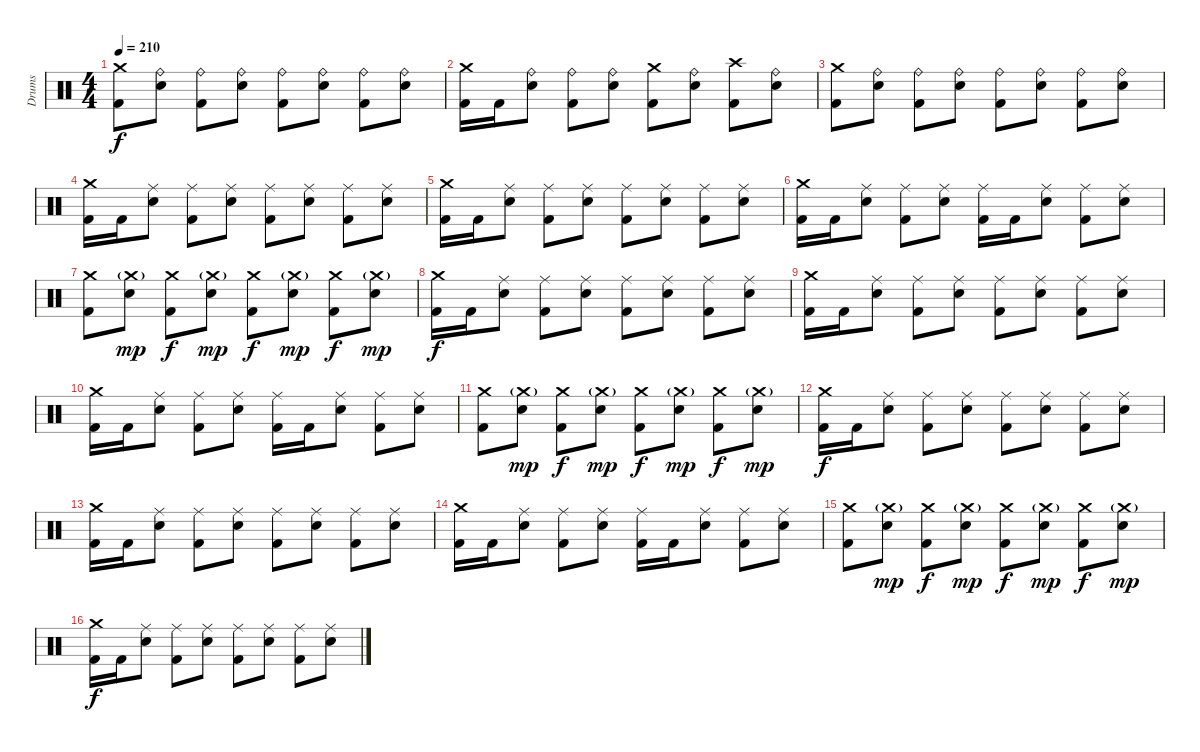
\track ("Drums" "Drums") {instrument percussion}
\staff {score}
\articulation defaults
\ts (4 4)
\tempo 210
\clef neutral
\ks c
("Kick (hit) 2" "Crash medium (hit)").8{dy f} ("Snare (hit) 2" "Ride (bell)").8 ("Kick (hit) 2" "Ride (bell)").8 ("Snare (hit) 2" "Ride (bell)").8 ("Kick (hit) 2" "Ride (bell)").8 ("Snare (hit) 2" "Ride (bell)").8 ("Kick (hit) 2" "Ride (bell)").8 ("Snare (hit) 2" "Ride (bell)").8 |
("Kick (hit) 2" "Crash medium (hit)").16 "Kick (hit) 2".16 ("Snare (hit) 2" "Ride (bell)").8 ("Kick (hit) 2" "Ride (bell)").8 ("Snare (hit) 2" "Ride (bell)").8 ("Kick (hit) 2" "Crash medium (hit)").8 ("Snare (hit) 2" "Ride (bell)").8 ("Kick (hit) 2" "Crash high (hit)").8 ("Snare (hit) 2" "Ride (bell)").8 |
("Kick (hit) 2" "Crash medium (hit)").8 ("Snare (hit) 2" "Ride (bell)").8 ("Kick (hit) 2" "Ride (bell)").8 ("Snare (hit) 2" "Ride (bell)").8 ("Kick (hit) 2" "Ride (bell)").8 ("Snare (hit) 2" "Ride (bell)").8 ("Kick (hit) 2" "Ride (bell)").8 ("Snare (hit) 2" "Ride (bell)").8 |
("Kick (hit) 2" "Crash medium (hit)").16 "Kick (hit) 2".16 ("Snare (hit) 2" "Ride (middle)").8 ("Kick (hit) 2" "Ride (middle)").8 ("Snare (hit) 2" "Ride (middle)").8 ("Kick (hit) 2" "Ride (middle)").8 ("Snare (hit) 2" "Ride (middle)").8 ("Kick (hit) 2" "Ride (middle)").8 ("Snare (hit) 2" "Ride (middle)").8 |
("Kick (hit) 2" "Crash medium (hit)").16 "Kick (hit) 2".16 ("Snare (hit) 2" "Ride (middle)").8 ("Kick (hit) 2" "Ride (middle)").8 ("Snare (hit) 2" "Ride (middle)").8 ("Kick (hit) 2" "Ride (middle)").8 ("Snare (hit) 2" "Ride (middle)").8 ("Kick (hit) 2" "Ride (middle)").8 ("Snare (hit) 2" "Ride (middle)").8 |
("Kick (hit) 2" "Crash medium (hit)").16 "Kick (hit) 2".16 ("Snare (hit) 2" "Ride (middle)").8 ("Kick (hit) 2" "Ride (middle)").8 ("Snare (hit) 2" "Ride (middle)").8 ("Kick (hit) 2" "Ride (middle)").16 "Kick (hit) 2".16 ("Snare (hit) 2" "Ride (middle)").8 ("Kick (hit) 2" "Ride (middle)").8 ("Snare (hit) 2" "Ride (middle)").8 |
("Kick (hit) 2" "Crash medium (hit)").8 ("Snare (hit) 2" "Crash medium (hit)"{g}).8{dy mp} ("Kick (hit) 2" "Crash medium (hit)").8{dy f} ("Snare (hit) 2" "Crash medium (hit)"{g}).8{dy mp} ("Kick (hit) 2" "Crash medium (hit)").8{dy f} ("Snare (hit) 2" "Crash medium (hit)"{g}).8{dy mp} ("Kick (hit) 2" "Crash medium (hit)").8{dy f} ("Snare (hit) 2" "Crash medium (hit)"{g}).8{dy mp} |
("Kick (hit) 2" "Crash medium (hit)").16{dy f} "Kick (hit) 2".16 ("Snare (hit) 2" "Ride (middle)").8 ("Kick (hit) 2" "Ride (middle)").8 ("Snare (hit) 2" "Ride (middle)").8 ("Kick (hit) 2" "Ride (middle)").8 ("Snare (hit) 2" "Ride (middle)").8 ("Kick (hit) 2" "Ride (middle)").8 ("Snare (hit) 2" "Ride (middle)").8 |
("Kick (hit) 2" "Crash medium (hit)").16 "Kick (hit) 2".16 ("Snare (hit) 2" "Ride (middle)").8 ("Kick (hit) 2" "Ride (middle)").8 ("Snare (hit) 2" "Ride (middle)").8 ("Kick (hit) 2" "Ride (middle)").8 ("Snare (hit) 2" "Ride (middle)").8 ("Kick (hit) 2" "Ride (middle)").8 ("Snare (hit) 2" "Ride (middle)").8 |
("Kick (hit) 2" "Crash medium (hit)").16 "Kick (hit) 2".16 ("Snare (hit) 2" "Ride (middle)").8 ("Kick (hit) 2" "Ride (middle)").8 ("Snare (hit) 2" "Ride (middle)").8 ("Kick (hit) 2" "Ride (middle)").16 "Kick (hit) 2".16 ("Snare (hit) 2" "Ride (middle)").8 ("Kick (hit) 2" "Ride (middle)").8 ("Snare (hit) 2" "Ride (middle)").8 |
("Kick (hit) 2" "Crash medium (hit)").8 ("Snare (hit) 2" "Crash medium (hit)"{g}).8{dy mp} ("Kick (hit) 2" "Crash medium (hit)").8{dy f} ("Snare (hit) 2" "Crash medium (hit)"{g}).8{dy mp} ("Kick (hit) 2" "Crash medium (hit)").8{dy f} ("Snare (hit) 2" "Crash medium (hit)"{g}).8{dy mp} ("Kick (hit) 2" "Crash medium (hit)").8{dy f} ("Snare (hit) 2" "Crash medium (hit)"{g}).8{dy mp} |
("Kick (hit) 2" "Crash medium (hit)").16{dy f} "Kick (hit) 2".16 ("Snare (hit) 2" "Ride (middle)").8 ("Kick (hit) 2" "Ride (middle)").8 ("Snare (hit) 2" "Ride (middle)").8 ("Kick (hit) 2" "Ride (middle)").8 ("Snare (hit) 2" "Ride (middle)").8 ("Kick (hit) 2" "Ride (middle)").8 ("Snare (hit) 2" "Ride (middle)").8 |
("Kick (hit) 2" "Crash medium (hit)").16 "Kick (hit) 2".16 ("Snare (hit) 2" "Ride (middle)").8 ("Kick (hit) 2" "Ride (middle)").8 ("Snare (hit) 2" "Ride (middle)").8 ("Kick (hit) 2" "Ride (middle)").8 ("Snare (hit) 2" "Ride (middle)").8 ("Kick (hit) 2" "Ride (middle)").8 ("Snare (hit) 2" "Ride (middle)").8 |
("Kick (hit) 2" "Crash medium (hit)").16 "Kick (hit) 2".16 ("Snare (hit) 2" "Ride (middle)").8 ("Kick (hit) 2" "Ride (middle)").8 ("Snare (hit) 2" "Ride (middle)").8 ("Kick (hit) 2" "Ride (middle)").16 "Kick (hit) 2".16 ("Snare (hit) 2" "Ride (middle)").8 ("Kick (hit) 2" "Ride (middle)").8 ("Snare (hit) 2" "Ride (middle)").8 |
("Kick (hit) 2" "Crash medium (hit)").8 ("Snare (hit) 2" "Crash medium (hit)"{g}).8{dy mp} ("Kick (hit) 2" "Crash medium (hit)").8{dy f} ("Snare (hit) 2" "Crash medium (hit)"{g}).8{dy mp} ("Kick (hit) 2" "Crash medium (hit)").8{dy f} ("Snare (hit) 2" "Crash medium (hit)"{g}).8{dy mp} ("Kick (hit) 2" "Crash medium (hit)").8{dy f} ("Snare (hit) 2" "Crash medium (hit)"{g}).8{dy mp} |
("Kick (hit) 2" "Crash medium (hit)").16{dy f} "Kick (hit) 2".16 ("Snare (hit) 2" "Ride (middle)").8 ("Kick (hit) 2" "Ride (middle)").8 ("Snare (hit) 2" "Ride (middle)").8 ("Kick (hit) 2" "Ride (middle)").8 ("Snare (hit) 2" "Ride (middle)").8 ("Kick (hit) 2" "Ride (middle)").8 ("Snare (hit) 2" "Ride (middle)").8
